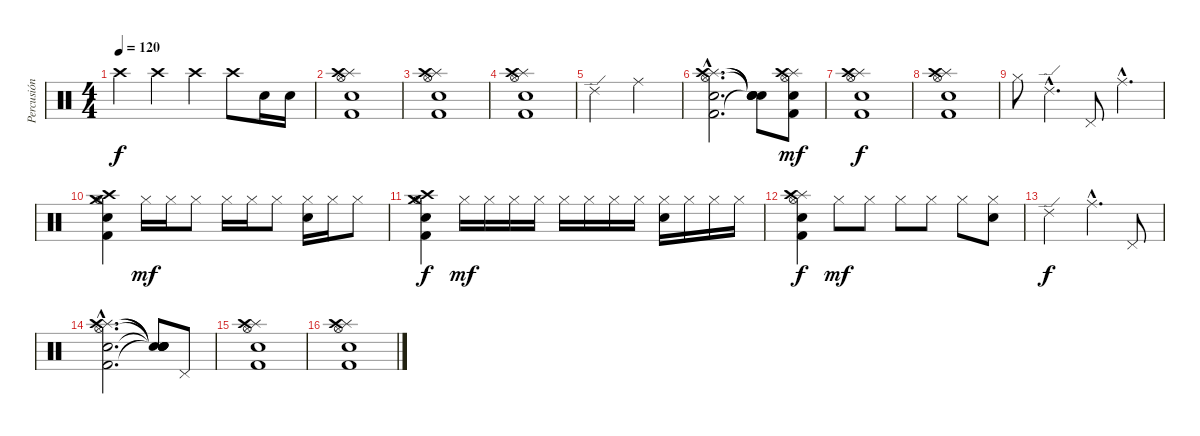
\track ("Percusión" "Percusión") {instrument percussion}
\staff {score}
\articulation defaults
\ts (4 4)
\tempo 120
\clef neutral
\ks c "Crash high (hit)".4{dy f} "Crash high (hit)".4 "Crash high (hit)".4 "Crash high (hit)".8 "Snare (hit) 2".16 "Snare (hit) 2".16
|
("Hi-Hat (open)" "Splash (hit)" "Crash high (hit)" "Kick (hit) 2" "Snare (hit) 2").1 |
("Hi-Hat (open)" "Splash (hit)" "Crash high (hit)" "Kick (hit) 2" "Snare (hit) 2").1 |
("Hi-Hat (open)" "Splash (hit)" "Crash high (hit)" "Kick (hit) 2" "Snare (hit) 2").1 |
"Ride (edge) 2".2 "Ride (middle)".2 |
("Hi-Hat (open)"{hac} "Splash (hit)"{hac} "Crash high (hit)"{hac} "Kick (hit) 2"{hac} "Snare (hit) 2"{hac}).2{d} ("Snare (hit)"{t} "Snare (hit)"{t} "Snare (hit)"{t} "Snare (hit)"{t}).8 ("Hi-Hat (open)" "Splash (hit)" "Crash high (hit)" "Kick (hit) 2" "Snare (hit) 2").8{dy mf} |
("Hi-Hat (open)" "Splash (hit)" "Crash high (hit)" "Kick (hit) 2" "Snare (hit) 2").1{dy f} |
("Hi-Hat (open)" "Splash (hit)" "Crash high (hit)" "Kick (hit) 2" "Snare (hit) 2").1 |
"Hi-Hat (closed)".8 "Ride (edge) 2"{hac}.4{d} "Pedal Hi-Hat (hit)".8 "Ride (middle)"{hac}.4{d} |
("Hi-Hat (open)" "Crash medium (hit)" "Crash high (hit)" "Kick (hit) 2" "Snare (hit) 2").4 "Hi-Hat (closed)".16{dy mf} "Hi-Hat (closed)".16 "Hi-Hat (closed)".8 "Hi-Hat (closed)".16 "Hi-Hat (closed)".16 "Hi-Hat (closed)".8 ("Hi-Hat (closed)" "Snare (hit) 2").16 "Hi-Hat (closed)".16 "Hi-Hat (closed)".8 |
("Hi-Hat (open)" "Crash medium (hit)" "Crash high (hit)" "Kick (hit) 2" "Snare (hit) 2").4{dy f} "Hi-Hat (closed)".16{dy mf} "Hi-Hat (closed)".16 "Hi-Hat (closed)".16 "Hi-Hat (closed)".16 "Hi-Hat (closed)".16 "Hi-Hat (closed)".16 "Hi-Hat (closed)".16 "Hi-Hat (closed)".16 ("Hi-Hat (closed)" "Snare (hit) 2").16 "Hi-Hat (closed)".16 "Hi-Hat (closed)".16 "Hi-Hat (closed)".16 |
("Hi-Hat (open)" "Splash (hit)" "Crash high (hit)" "Kick (hit) 2" "Snare (hit) 2").4{dy f} "Hi-Hat (closed)".8{dy mf} "Hi-Hat (closed)".8 "Hi-Hat (closed)".8 "Hi-Hat (closed)".8 "Hi-Hat (closed)".8 ("Hi-Hat (closed)" "Snare (hit) 2").8 |
"Ride (edge) 2".2{dy f} "Ride (middle)"{hac}.4{d} "Pedal Hi-Hat (hit)".8 |
("Hi-Hat (open)"{hac} "Splash (hit)"{hac} "Crash high (hit)"{hac} "Kick (hit) 2"{hac} "Snare (hit) 2"{hac}).2{d} ("Snare (hit)"{t} "Snare (hit)"{t} "Snare (hit)"{t} "Snare (hit)"{t} "Snare (hit)"{t}).8 "Pedal Hi-Hat (hit)".8 |
("Hi-Hat (open)" "Splash (hit)" "Crash high (hit)" "Kick (hit) 2" "Snare (hit) 2").1 |
("Hi-Hat (open)" "Splash (hit)" "Crash high (hit)" "Kick (hit) 2" "Snare (hit) 2").1
